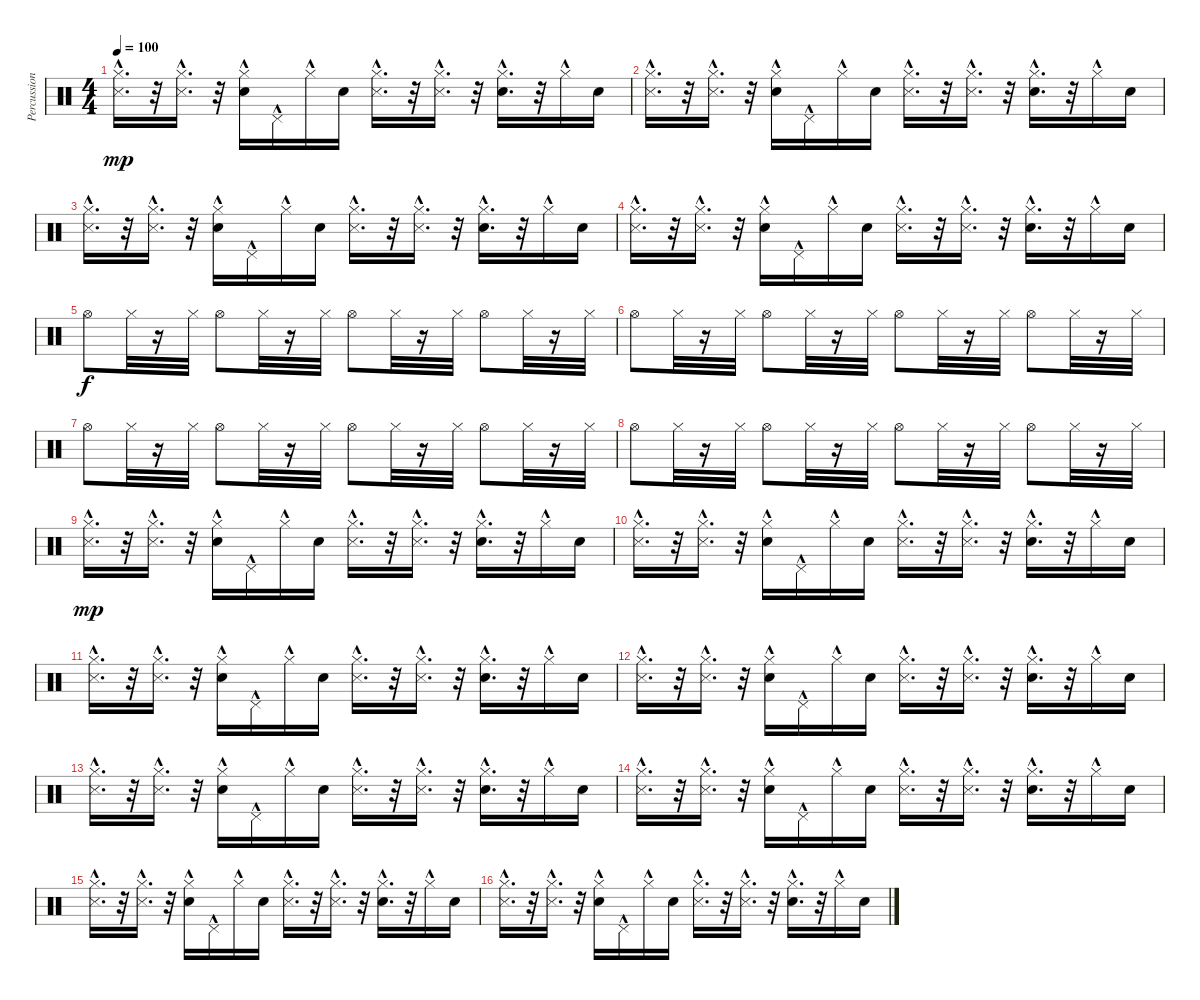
\track ("Percussion" "Percussion") {instrument percussion}
\staff {score}
\articulation defaults
\ts (4 4)
\tempo 100
\clef neutral
\ks c
("Hi-Hat (closed)"{hac} "Metronome (hit)"{hac}).16{d dy mp} r.32 ("Hi-Hat (closed)"{hac} "Metronome (hit)").16{d} r.32 ("Hi-Hat (closed)"{hac} "Metronome (bell)").16 "Pedal Hi-Hat (hit)"{hac}.16 "Hi-Hat (closed)"{hac}.16 "Metronome (bell)".16 ("Metronome (hit)"{hac} "Hi-Hat (closed)"{hac}).16{d} r.32 ("Metronome (hit)" "Hi-Hat (closed)"{hac}).16{d} r.32 ("Metronome (bell)" "Hi-Hat (closed)"{hac}).16{d} r.32 "Hi-Hat (closed)"{hac}.16 "Metronome (bell)".16 |
("Hi-Hat (closed)"{hac} "Metronome (hit)"{hac}).16{d} r.32 ("Hi-Hat (closed)"{hac} "Metronome (hit)").16{d} r.32 ("Hi-Hat (closed)"{hac} "Metronome (bell)").16 "Pedal Hi-Hat (hit)"{hac}.16 "Hi-Hat (closed)"{hac}.16 "Metronome (bell)".16 ("Metronome (hit)"{hac} "Hi-Hat (closed)"{hac}).16{d} r.32 ("Metronome (hit)" "Hi-Hat (closed)"{hac}).16{d} r.32 ("Metronome (bell)" "Hi-Hat (closed)"{hac}).16{d} r.32 "Hi-Hat (closed)"{hac}.16 "Metronome (bell)".16 |
("Hi-Hat (closed)"{hac} "Metronome (hit)"{hac}).16{d} r.32 ("Hi-Hat (closed)"{hac} "Metronome (hit)").16{d} r.32 ("Hi-Hat (closed)"{hac} "Metronome (bell)").16 "Pedal Hi-Hat (hit)"{hac}.16 "Hi-Hat (closed)"{hac}.16 "Metronome (bell)".16 ("Metronome (hit)"{hac} "Hi-Hat (closed)"{hac}).16{d} r.32 ("Metronome (hit)" "Hi-Hat (closed)"{hac}).16{d} r.32 ("Metronome (bell)" "Hi-Hat (closed)"{hac}).16{d} r.32 "Hi-Hat (closed)"{hac}.16 "Metronome (bell)".16 |
("Hi-Hat (closed)"{hac} "Metronome (hit)"{hac}).16{d} r.32 ("Hi-Hat (closed)"{hac} "Metronome (hit)").16{d} r.32 ("Hi-Hat (closed)"{hac} "Metronome (bell)").16 "Pedal Hi-Hat (hit)"{hac}.16 "Hi-Hat (closed)"{hac}.16 "Metronome (bell)".16 ("Metronome (hit)"{hac} "Hi-Hat (closed)"{hac}).16{d} r.32 ("Metronome (hit)" "Hi-Hat (closed)"{hac}).16{d} r.32 ("Metronome (bell)" "Hi-Hat (closed)"{hac}).16{d} r.32 "Hi-Hat (closed)"{hac}.16 "Metronome (bell)".16 |
"Hi-Hat (open)".8{dy f} "Hi-Hat (closed)".32 r.16 "Hi-Hat (closed)".32 "Hi-Hat (open)".8 "Hi-Hat (closed)".32 r.16 "Hi-Hat (closed)".32 "Hi-Hat (open)".8 "Hi-Hat (closed)".32 r.16 "Hi-Hat (closed)".32 "Hi-Hat (open)".8 "Hi-Hat (closed)".32 r.16 "Hi-Hat (closed)".32 |
"Hi-Hat (open)".8 "Hi-Hat (closed)".32 r.16 "Hi-Hat (closed)".32 "Hi-Hat (open)".8 "Hi-Hat (closed)".32 r.16 "Hi-Hat (closed)".32 "Hi-Hat (open)".8 "Hi-Hat (closed)".32 r.16 "Hi-Hat (closed)".32 "Hi-Hat (open)".8 "Hi-Hat (closed)".32 r.16 "Hi-Hat (closed)".32 |
"Hi-Hat (open)".8 "Hi-Hat (closed)".32 r.16 "Hi-Hat (closed)".32 "Hi-Hat (open)".8 "Hi-Hat (closed)".32 r.16 "Hi-Hat (closed)".32 "Hi-Hat (open)".8 "Hi-Hat (closed)".32 r.16 "Hi-Hat (closed)".32 "Hi-Hat (open)".8 "Hi-Hat (closed)".32 r.16 "Hi-Hat (closed)".32 |
"Hi-Hat (open)".8 "Hi-Hat (closed)".32 r.16 "Hi-Hat (closed)".32 "Hi-Hat (open)".8 "Hi-Hat (closed)".32 r.16 "Hi-Hat (closed)".32 "Hi-Hat (open)".8 "Hi-Hat (closed)".32 r.16 "Hi-Hat (closed)".32 "Hi-Hat (open)".8 "Hi-Hat (closed)".32 r.16 "Hi-Hat (closed)".32 |
("Hi-Hat (closed)"{hac} "Metronome (hit)"{hac}).16{d dy mp} r.32 ("Hi-Hat (closed)"{hac} "Metronome (hit)").16{d} r.32 ("Hi-Hat (closed)"{hac} "Metronome (bell)").16 "Pedal Hi-Hat (hit)"{hac}.16 "Hi-Hat (closed)"{hac}.16 "Metronome (bell)".16 ("Metronome (hit)"{hac} "Hi-Hat (closed)"{hac}).16{d} r.32 ("Metronome (hit)" "Hi-Hat (closed)"{hac}).16{d} r.32 ("Metronome (bell)" "Hi-Hat (closed)"{hac}).16{d} r.32 "Hi-Hat (closed)"{hac}.16 "Metronome (bell)".16 |
("Hi-Hat (closed)"{hac} "Metronome (hit)"{hac}).16{d} r.32 ("Hi-Hat (closed)"{hac} "Metronome (hit)").16{d} r.32 ("Hi-Hat (closed)"{hac} "Metronome (bell)").16 "Pedal Hi-Hat (hit)"{hac}.16 "Hi-Hat (closed)"{hac}.16 "Metronome (bell)".16 ("Metronome (hit)"{hac} "Hi-Hat (closed)"{hac}).16{d} r.32 ("Metronome (hit)" "Hi-Hat (closed)"{hac}).16{d} r.32 ("Metronome (bell)" "Hi-Hat (closed)"{hac}).16{d} r.32 "Hi-Hat (closed)"{hac}.16 "Metronome (bell)".16 |
("Hi-Hat (closed)"{hac} "Metronome (hit)"{hac}).16{d} r.32 ("Hi-Hat (closed)"{hac} "Metronome (hit)").16{d} r.32 ("Hi-Hat (closed)"{hac} "Metronome (bell)").16 "Pedal Hi-Hat (hit)"{hac}.16 "Hi-Hat (closed)"{hac}.16 "Metronome (bell)".16 ("Metronome (hit)"{hac} "Hi-Hat (closed)"{hac}).16{d} r.32 ("Metronome (hit)" "Hi-Hat (closed)"{hac}).16{d} r.32 ("Metronome (bell)" "Hi-Hat (closed)"{hac}).16{d} r.32 "Hi-Hat (closed)"{hac}.16 "Metronome (bell)".16 |
("Hi-Hat (closed)"{hac} "Metronome (hit)"{hac}).16{d} r.32 ("Hi-Hat (closed)"{hac} "Metronome (hit)").16{d} r.32 ("Hi-Hat (closed)"{hac} "Metronome (bell)").16 "Pedal Hi-Hat (hit)"{hac}.16 "Hi-Hat (closed)"{hac}.16 "Metronome (bell)".16 ("Metronome (hit)"{hac} "Hi-Hat (closed)"{hac}).16{d} r.32 ("Metronome (hit)" "Hi-Hat (closed)"{hac}).16{d} r.32 ("Metronome (bell)" "Hi-Hat (closed)"{hac}).16{d} r.32 "Hi-Hat (closed)"{hac}.16 "Metronome (bell)".16 |
("Hi-Hat (closed)"{hac} "Metronome (hit)"{hac}).16{d} r.32 ("Hi-Hat (closed)"{hac} "Metronome (hit)").16{d} r.32 ("Hi-Hat (closed)"{hac} "Metronome (bell)").16 "Pedal Hi-Hat (hit)"{hac}.16 "Hi-Hat (closed)"{hac}.16 "Metronome (bell)".16 ("Metronome (hit)"{hac} "Hi-Hat (closed)"{hac}).16{d} r.32 ("Metronome (hit)" "Hi-Hat (closed)"{hac}).16{d} r.32 ("Metronome (bell)" "Hi-Hat (closed)"{hac}).16{d} r.32 "Hi-Hat (closed)"{hac}.16 "Metronome (bell)".16 |
("Hi-Hat (closed)"{hac} "Metronome (hit)"{hac}).16{d} r.32 ("Hi-Hat (closed)"{hac} "Metronome (hit)").16{d} r.32 ("Hi-Hat (closed)"{hac} "Metronome (bell)").16 "Pedal Hi-Hat (hit)"{hac}.16 "Hi-Hat (closed)"{hac}.16 "Metronome (bell)".16 ("Metronome (hit)"{hac} "Hi-Hat (closed)"{hac}).16{d} r.32 ("Metronome (hit)" "Hi-Hat (closed)"{hac}).16{d} r.32 ("Metronome (bell)" "Hi-Hat (closed)"{hac}).16{d} r.32 "Hi-Hat (closed)"{hac}.16 "Metronome (bell)".16 |
("Hi-Hat (closed)"{hac} "Metronome (hit)"{hac}).16{d} r.32 ("Hi-Hat (closed)"{hac} "Metronome (hit)").16{d} r.32 ("Hi-Hat (closed)"{hac} "Metronome (bell)").16 "Pedal Hi-Hat (hit)"{hac}.16 "Hi-Hat (closed)"{hac}.16 "Metronome (bell)".16 ("Metronome (hit)"{hac} "Hi-Hat (closed)"{hac}).16{d} r.32 ("Metronome (hit)" "Hi-Hat (closed)"{hac}).16{d} r.32 ("Metronome (bell)" "Hi-Hat (closed)"{hac}).16{d} r.32 "Hi-Hat (closed)"{hac}.16 "Metronome (bell)".16 |
("Hi-Hat (closed)"{hac} "Metronome (hit)"{hac}).16{d} r.32 ("Hi-Hat (closed)"{hac} "Metronome (hit)").16{d} r.32 ("Hi-Hat (closed)"{hac} "Metronome (bell)").16 "Pedal Hi-Hat (hit)"{hac}.16 "Hi-Hat (closed)"{hac}.16 "Metronome (bell)".16 ("Metronome (hit)"{hac} "Hi-Hat (closed)"{hac}).16{d} r.32 ("Metronome (hit)" "Hi-Hat (closed)"{hac}).16{d} r.32 ("Metronome (bell)" "Hi-Hat (closed)"{hac}).16{d} r.32 "Hi-Hat (closed)"{hac}.16 "Metronome (bell)".16
